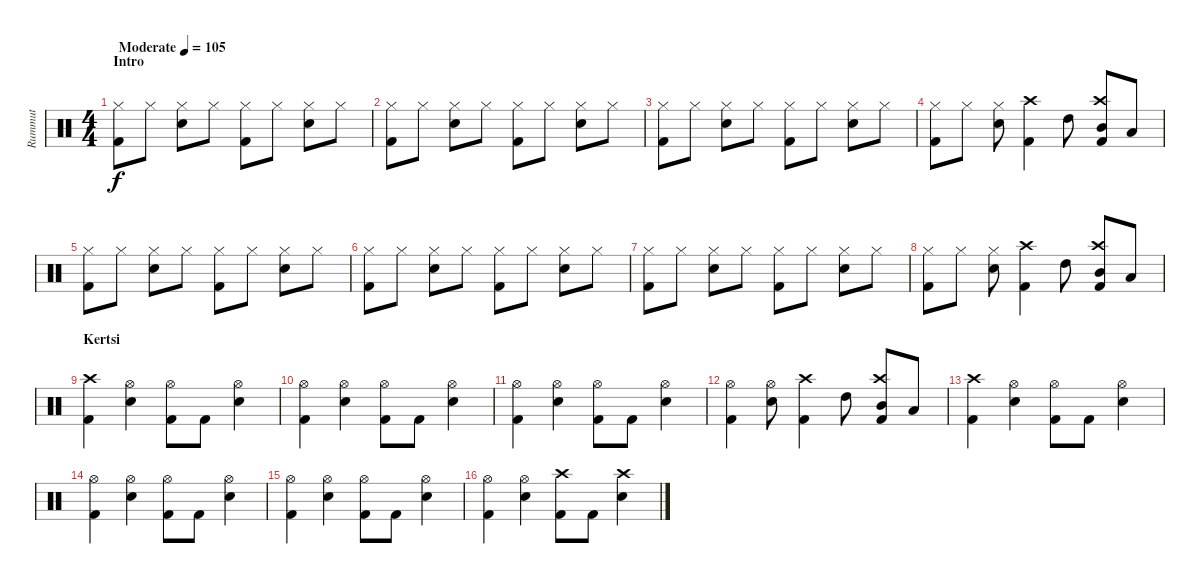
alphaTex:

\track ("Rummut" "Rummut") {instrument percussion}
\staff {score}
\articulation defaults
\ts (4 4)
\section ("" "Intro")
\tempo (105 "Moderate")
\clef neutral
\ks c
("Hi-Hat (closed)" "Kick (hit) 2").8{dy f} "Hi-Hat (closed)".8 ("Hi-Hat (closed)" "Snare (hit) 2").8 "Hi-Hat (closed)".8 ("Hi-Hat (closed)" "Kick (hit) 2").8 "Hi-Hat (closed)".8 ("Hi-Hat (closed)" "Snare (hit) 2").8 "Hi-Hat (closed)".8 |
("Hi-Hat (closed)" "Kick (hit) 2").8 "Hi-Hat (closed)".8 ("Hi-Hat (closed)" "Snare (hit) 2").8 "Hi-Hat (closed)".8 ("Hi-Hat (closed)" "Kick (hit) 2").8 "Hi-Hat (closed)".8 ("Hi-Hat (closed)" "Snare (hit) 2").8 "Hi-Hat (closed)".8 |
("Hi-Hat (closed)" "Kick (hit) 2").8 "Hi-Hat (closed)".8 ("Hi-Hat (closed)" "Snare (hit) 2").8 "Hi-Hat (closed)".8 ("Hi-Hat (closed)" "Kick (hit) 2").8 "Hi-Hat (closed)".8 ("Hi-Hat (closed)" "Snare (hit) 2").8 "Hi-Hat (closed)".8 |
("Hi-Hat (closed)" "Kick (hit) 2").8 "Hi-Hat (closed)".8 ("Hi-Hat (closed)" "Snare (hit) 2").8 ("Crash high (hit)" "Kick (hit) 2").4 "High Tom (hit)".8 ("Crash high (hit)" "Mid Tom (hit)" "Kick (hit) 2").8 "Low Tom (hit)".8 |
("Hi-Hat (closed)" "Kick (hit) 2").8 "Hi-Hat (closed)".8 ("Hi-Hat (closed)" "Snare (hit) 2").8 "Hi-Hat (closed)".8 ("Hi-Hat (closed)" "Kick (hit) 2").8 "Hi-Hat (closed)".8 ("Hi-Hat (closed)" "Snare (hit) 2").8 "Hi-Hat (closed)".8 |
("Hi-Hat (closed)" "Kick (hit) 2").8 "Hi-Hat (closed)".8 ("Hi-Hat (closed)" "Snare (hit) 2").8 "Hi-Hat (closed)".8 ("Hi-Hat (closed)" "Kick (hit) 2").8 "Hi-Hat (closed)".8 ("Hi-Hat (closed)" "Snare (hit) 2").8 "Hi-Hat (closed)".8 |
("Hi-Hat (closed)" "Kick (hit) 2").8 "Hi-Hat (closed)".8 ("Hi-Hat (closed)" "Snare (hit) 2").8 "Hi-Hat (closed)".8 ("Hi-Hat (closed)" "Kick (hit) 2").8 "Hi-Hat (closed)".8 ("Hi-Hat (closed)" "Snare (hit) 2").8 "Hi-Hat (closed)".8 |
("Hi-Hat (closed)" "Kick (hit) 2").8 "Hi-Hat (closed)".8 ("Hi-Hat (closed)" "Snare (hit) 2").8 ("Crash high (hit)" "Kick (hit) 2").4 "High Tom (hit)".8 ("Crash high (hit)" "Mid Tom (hit)" "Kick (hit) 2").8 "Low Tom (hit)".8 |
\section ("" "Kertsi")
("Crash high (hit)" "Kick (hit) 2").4 ("Hi-Hat (open)" "Snare (hit) 2").4 ("Hi-Hat (open)" "Kick (hit) 2").8 "Kick (hit) 2".8 ("Hi-Hat (open)" "Snare (hit) 2").4 |
("Hi-Hat (open)" "Kick (hit) 2").4 ("Hi-Hat (open)" "Snare (hit) 2").4 ("Hi-Hat (open)" "Kick (hit) 2").8 "Kick (hit) 2".8 ("Hi-Hat (open)" "Snare (hit) 2").4 |
("Hi-Hat (open)" "Kick (hit) 2").4 ("Hi-Hat (open)" "Snare (hit) 2").4 ("Hi-Hat (open)" "Kick (hit) 2").8 "Kick (hit) 2".8 ("Hi-Hat (open)" "Snare (hit) 2").4 |
("Hi-Hat (open)" "Kick (hit) 2").4 ("Hi-Hat (open)" "Snare (hit) 2").8 ("Crash high (hit)" "Kick (hit) 2").4 "High Tom (hit)".8 ("Crash high (hit)" "Mid Tom (hit)" "Kick (hit) 2").8 "Low Tom (hit)".8 |
("Crash high (hit)" "Kick (hit) 2").4 ("Hi-Hat (open)" "Snare (hit) 2").4 ("Hi-Hat (open)" "Kick (hit) 2").8 "Kick (hit) 2".8 ("Hi-Hat (open)" "Snare (hit) 2").4 |
("Hi-Hat (open)" "Kick (hit) 2").4 ("Hi-Hat (open)" "Snare (hit) 2").4 ("Hi-Hat (open)" "Kick (hit) 2").8 "Kick (hit) 2".8 ("Hi-Hat (open)" "Snare (hit) 2").4 |
("Hi-Hat (open)" "Kick (hit) 2").4 ("Hi-Hat (open)" "Snare (hit) 2").4 ("Hi-Hat (open)" "Kick (hit) 2").8 "Kick (hit) 2".8 ("Hi-Hat (open)" "Snare (hit) 2").4 |
("Hi-Hat (open)" "Kick (hit) 2").4 ("Hi-Hat (open)" "Snare (hit) 2").4 ("Crash high (hit)" "Kick (hit) 2").8 "Kick (hit) 2".8 ("Crash high (hit)" "Snare (hit) 2").4
